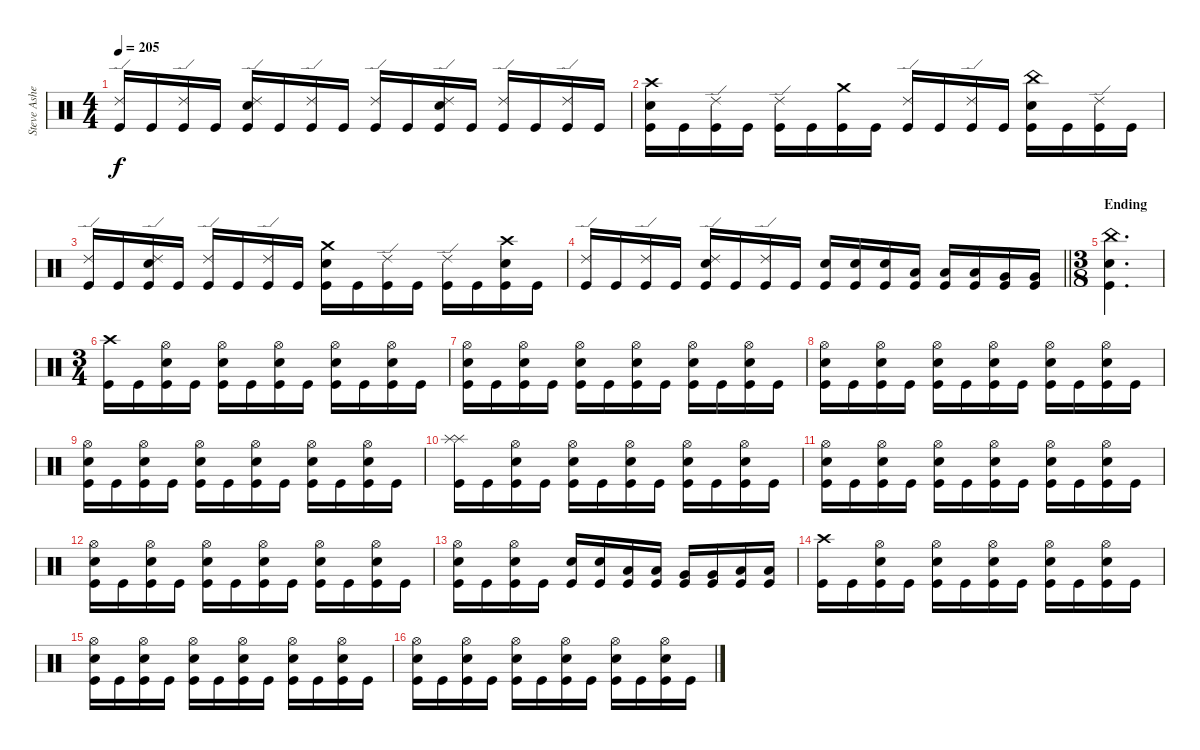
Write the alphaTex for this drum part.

\track ("Steve Asheim" "Steve Ashe") {instrument percussion}
\staff {score}
\articulation defaults
\ts (4 4)
\tempo 205
\clef neutral
\ks c
("Ride (edge) 2" "Kick (hit)").16{dy f} "Kick (hit)".16 ("Ride (edge) 2" "Kick (hit)").16 "Kick (hit)".16 ("Ride (edge) 2" "Snare (hit) 2" "Kick (hit)").16 "Kick (hit)".16 ("Ride (edge) 2" "Kick (hit)").16 "Kick (hit)".16 ("Ride (edge) 2" "Kick (hit)").16 "Kick (hit)".16 ("Ride (edge) 2" "Snare (hit) 2" "Kick (hit)").16 "Kick (hit)".16 ("Ride (edge) 2" "Kick (hit)").16 "Kick (hit)".16 ("Ride (edge) 2" "Kick (hit)").16 "Kick (hit)".16 |
("Crash high (hit)" "Snare (hit) 2" "Kick (hit)").16 "Kick (hit)".16 ("Ride (edge) 2" "Kick (hit)").16 "Kick (hit)".16 ("Ride (edge) 2" "Kick (hit)").16 "Kick (hit)".16 ("Crash medium (hit)" "Kick (hit)").16 "Kick (hit)".16 ("Ride (edge) 2" "Kick (hit)").16 "Kick (hit)".16 ("Ride (edge) 2" "Kick (hit)").16 "Kick (hit)".16 ("China (hit)" "Snare (hit) 2" "Kick (hit)").16 "Kick (hit)".16 ("Ride (edge) 2" "Kick (hit)").16 "Kick (hit)".16 |
("Ride (edge) 2" "Kick (hit)").16 "Kick (hit)".16 ("Ride (edge) 2" "Snare (hit) 2" "Kick (hit)").16 "Kick (hit)".16 ("Ride (edge) 2" "Kick (hit)").16 "Kick (hit)".16 ("Ride (edge) 2" "Kick (hit)").16 "Kick (hit)".16 ("Crash medium (hit)" "Snare (hit) 2" "Kick (hit)").16 "Kick (hit)".16 ("Ride (edge) 2" "Kick (hit)").16 "Kick (hit)".16 ("Ride (edge) 2" "Kick (hit)").16 "Kick (hit)".16 ("Crash high (hit)" "Snare (hit) 2" "Kick (hit)").16 "Kick (hit)".16 |
\barLineRight lightlight
("Ride (edge) 2" "Kick (hit)").16 "Kick (hit)".16 ("Ride (edge) 2" "Kick (hit)").16 "Kick (hit)".16 ("Ride (edge) 2" "Snare (hit) 2" "Kick (hit)").16 "Kick (hit)".16 ("Ride (edge) 2" "Kick (hit)").16 "Kick (hit)".16 ("Snare (hit) 2" "Kick (hit)").16 ("Snare (hit) 2" "Kick (hit)").16 ("Snare (hit) 2" "Kick (hit)").16 ("Low Tom (hit)" "Kick (hit)").16 ("Low Tom (hit)" "Kick (hit)").16 ("Low Tom (hit)" "Kick (hit)").16 ("Very Low Tom (hit)" "Kick (hit)").16 ("Very Low Tom (hit)" "Kick (hit)").16 |
\ts (3 8)
\section ("" "Ending")
("China (hit)" "Snare (hit) 2" "Kick (hit)").4{d} |
\ts (3 4)
("Crash high (hit)" "Kick (hit)").16 "Kick (hit)".16 ("Hi-Hat (open)" "Snare (hit) 2" "Kick (hit)").16 "Kick (hit)".16 ("Hi-Hat (open)" "Snare (hit) 2" "Kick (hit)").16 "Kick (hit)".16 ("Hi-Hat (open)" "Snare (hit) 2" "Kick (hit)").16 "Kick (hit)".16 ("Hi-Hat (open)" "Snare (hit) 2" "Kick (hit)").16 "Kick (hit)".16 ("Hi-Hat (open)" "Snare (hit) 2" "Kick (hit)").16 "Kick (hit)".16 |
("Hi-Hat (open)" "Snare (hit) 2" "Kick (hit)").16 "Kick (hit)".16 ("Hi-Hat (open)" "Snare (hit) 2" "Kick (hit)").16 "Kick (hit)".16 ("Hi-Hat (open)" "Snare (hit) 2" "Kick (hit)").16 "Kick (hit)".16 ("Hi-Hat (open)" "Snare (hit) 2" "Kick (hit)").16 "Kick (hit)".16 ("Hi-Hat (open)" "Snare (hit) 2" "Kick (hit)").16 "Kick (hit)".16 ("Hi-Hat (open)" "Snare (hit) 2" "Kick (hit)").16 "Kick (hit)".16 |
("Hi-Hat (open)" "Snare (hit) 2" "Kick (hit)").16 "Kick (hit)".16 ("Hi-Hat (open)" "Snare (hit) 2" "Kick (hit)").16 "Kick (hit)".16 ("Hi-Hat (open)" "Snare (hit) 2" "Kick (hit)").16 "Kick (hit)".16 ("Hi-Hat (open)" "Snare (hit) 2" "Kick (hit)").16 "Kick (hit)".16 ("Hi-Hat (open)" "Snare (hit) 2" "Kick (hit)").16 "Kick (hit)".16 ("Hi-Hat (open)" "Snare (hit) 2" "Kick (hit)").16 "Kick (hit)".16 |
("Hi-Hat (open)" "Snare (hit) 2" "Kick (hit)").16 "Kick (hit)".16 ("Hi-Hat (open)" "Snare (hit) 2" "Kick (hit)").16 "Kick (hit)".16 ("Hi-Hat (open)" "Snare (hit) 2" "Kick (hit)").16 "Kick (hit)".16 ("Hi-Hat (open)" "Snare (hit) 2" "Kick (hit)").16 "Kick (hit)".16 ("Hi-Hat (open)" "Snare (hit) 2" "Kick (hit)").16 "Kick (hit)".16 ("Hi-Hat (open)" "Snare (hit) 2" "Kick (hit)").16 "Kick (hit)".16 |
("Splash (hit)" "Splash (hit)" "Kick (hit)").16 "Kick (hit)".16 ("Hi-Hat (open)" "Snare (hit) 2" "Kick (hit)").16 "Kick (hit)".16 ("Hi-Hat (open)" "Snare (hit) 2" "Kick (hit)").16 "Kick (hit)".16 ("Hi-Hat (open)" "Snare (hit) 2" "Kick (hit)").16 "Kick (hit)".16 ("Hi-Hat (open)" "Snare (hit) 2" "Kick (hit)").16 "Kick (hit)".16 ("Hi-Hat (open)" "Snare (hit) 2" "Kick (hit)").16 "Kick (hit)".16 |
("Hi-Hat (open)" "Snare (hit) 2" "Kick (hit)").16 "Kick (hit)".16 ("Hi-Hat (open)" "Snare (hit) 2" "Kick (hit)").16 "Kick (hit)".16 ("Hi-Hat (open)" "Snare (hit) 2" "Kick (hit)").16 "Kick (hit)".16 ("Hi-Hat (open)" "Snare (hit) 2" "Kick (hit)").16 "Kick (hit)".16 ("Hi-Hat (open)" "Snare (hit) 2" "Kick (hit)").16 "Kick (hit)".16 ("Hi-Hat (open)" "Snare (hit) 2" "Kick (hit)").16 "Kick (hit)".16 |
("Hi-Hat (open)" "Snare (hit) 2" "Kick (hit)").16 "Kick (hit)".16 ("Hi-Hat (open)" "Snare (hit) 2" "Kick (hit)").16 "Kick (hit)".16 ("Hi-Hat (open)" "Snare (hit) 2" "Kick (hit)").16 "Kick (hit)".16 ("Hi-Hat (open)" "Snare (hit) 2" "Kick (hit)").16 "Kick (hit)".16 ("Hi-Hat (open)" "Snare (hit) 2" "Kick (hit)").16 "Kick (hit)".16 ("Hi-Hat (open)" "Snare (hit) 2" "Kick (hit)").16 "Kick (hit)".16 |
("Hi-Hat (open)" "Snare (hit) 2" "Kick (hit)").16 "Kick (hit)".16 ("Hi-Hat (open)" "Snare (hit) 2" "Kick (hit)").16 "Kick (hit)".16 ("Snare (hit) 2" "Kick (hit)").16 ("Snare (hit) 2" "Kick (hit)").16 ("Low Tom (hit)" "Kick (hit)").16 ("Low Tom (hit)" "Kick (hit)").16 ("Very Low Tom (hit)" "Kick (hit)").16 ("Very Low Tom (hit)" "Kick (hit)").16 ("Low Floor Tom (hit)" "Kick (hit)").16 ("Low Floor Tom (hit)" "Kick (hit)").16 |
("Crash high (hit)" "Kick (hit)").16 "Kick (hit)".16 ("Hi-Hat (open)" "Snare (hit) 2" "Kick (hit)").16 "Kick (hit)".16 ("Hi-Hat (open)" "Snare (hit) 2" "Kick (hit)").16 "Kick (hit)".16 ("Hi-Hat (open)" "Snare (hit) 2" "Kick (hit)").16 "Kick (hit)".16 ("Hi-Hat (open)" "Snare (hit) 2" "Kick (hit)").16 "Kick (hit)".16 ("Hi-Hat (open)" "Snare (hit) 2" "Kick (hit)").16 "Kick (hit)".16 |
("Hi-Hat (open)" "Snare (hit) 2" "Kick (hit)").16 "Kick (hit)".16 ("Hi-Hat (open)" "Snare (hit) 2" "Kick (hit)").16 "Kick (hit)".16 ("Hi-Hat (open)" "Snare (hit) 2" "Kick (hit)").16 "Kick (hit)".16 ("Hi-Hat (open)" "Snare (hit) 2" "Kick (hit)").16 "Kick (hit)".16 ("Hi-Hat (open)" "Snare (hit) 2" "Kick (hit)").16 "Kick (hit)".16 ("Hi-Hat (open)" "Snare (hit) 2" "Kick (hit)").16 "Kick (hit)".16 |
("Hi-Hat (open)" "Snare (hit) 2" "Kick (hit)").16 "Kick (hit)".16 ("Hi-Hat (open)" "Snare (hit) 2" "Kick (hit)").16 "Kick (hit)".16 ("Hi-Hat (open)" "Snare (hit) 2" "Kick (hit)").16 "Kick (hit)".16 ("Hi-Hat (open)" "Snare (hit) 2" "Kick (hit)").16 "Kick (hit)".16 ("Hi-Hat (open)" "Snare (hit) 2" "Kick (hit)").16 "Kick (hit)".16 ("Hi-Hat (open)" "Snare (hit) 2" "Kick (hit)").16 "Kick (hit)".16
